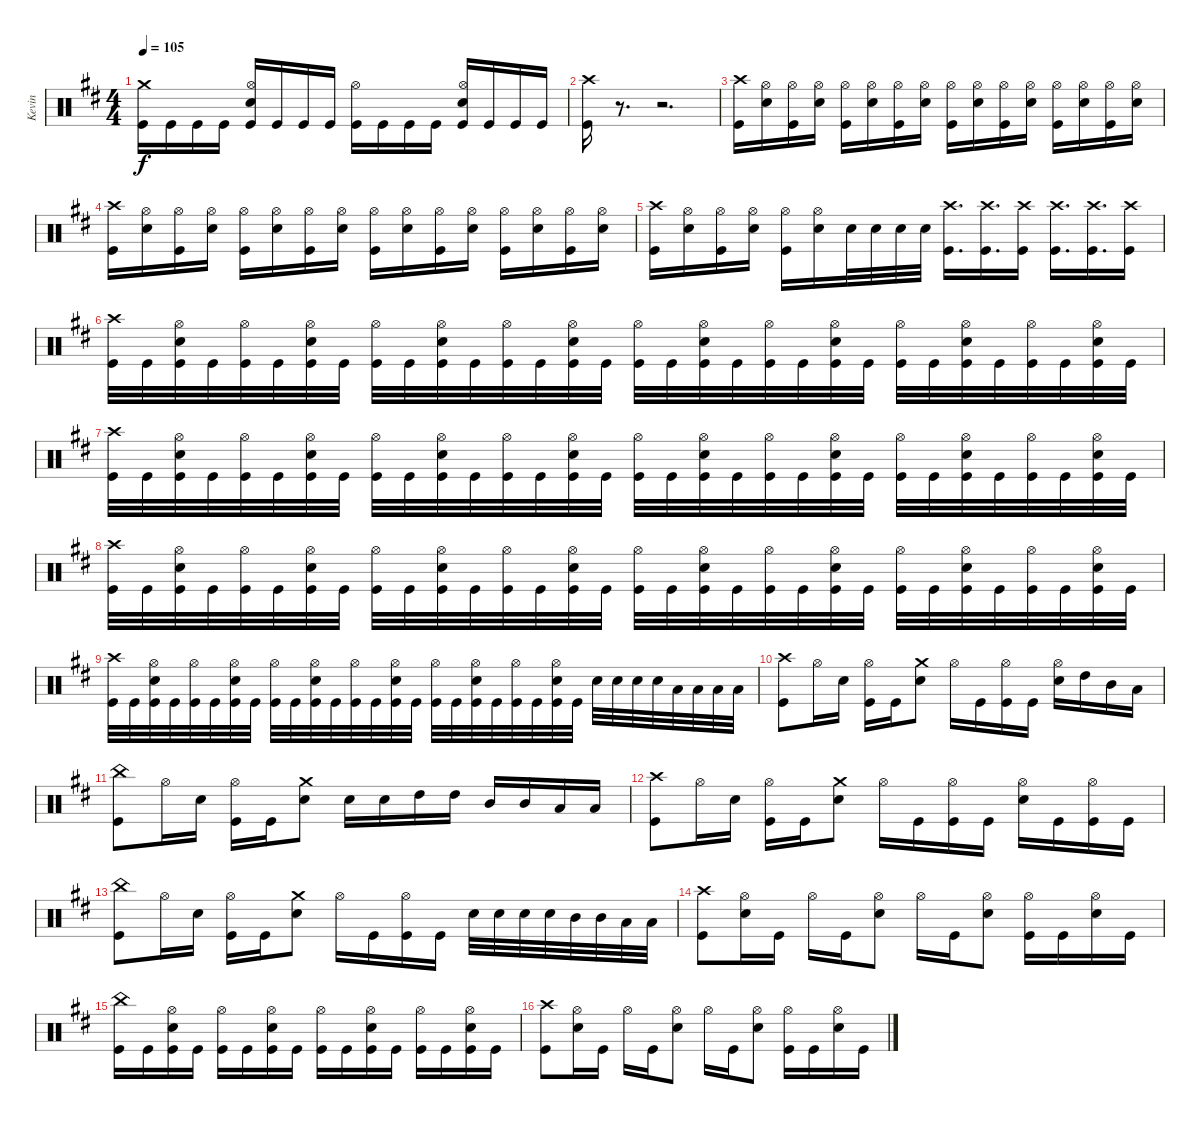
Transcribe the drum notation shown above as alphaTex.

\track ("Kevin" "Kevin") {instrument percussion}
\staff {score}
\articulation defaults
\ts (4 4)
\tempo 105
\clef neutral
\ks d
("Crash medium (hit)" "Kick (hit)").16{dy f} "Kick (hit)".16 "Kick (hit)".16 "Kick (hit)".16 ("Hi-Hat (open)" "Snare (hit) 2" "Kick (hit)").16 "Kick (hit)".16 "Kick (hit)".16 "Kick (hit)".16 ("Hi-Hat (open)" "Kick (hit)").16 "Kick (hit)".16 "Kick (hit)".16 "Kick (hit)".16 ("Hi-Hat (open)" "Snare (hit) 2" "Kick (hit)").16 "Kick (hit)".16 "Kick (hit)".16 "Kick (hit)".16 |
("Crash high (hit)" "Kick (hit)").16 r.8{d} r.2{d} |
("Crash high (hit)" "Kick (hit)").16 ("Hi-Hat (open)" "Snare (hit) 2").16 ("Hi-Hat (open)" "Kick (hit)").16 ("Hi-Hat (open)" "Snare (hit) 2").16 ("Hi-Hat (open)" "Kick (hit)").16 ("Hi-Hat (open)" "Snare (hit) 2").16 ("Hi-Hat (open)" "Kick (hit)").16 ("Hi-Hat (open)" "Snare (hit) 2").16 ("Hi-Hat (open)" "Kick (hit)").16 ("Hi-Hat (open)" "Snare (hit) 2").16 ("Hi-Hat (open)" "Kick (hit)").16 ("Hi-Hat (open)" "Snare (hit) 2").16 ("Hi-Hat (open)" "Kick (hit)").16 ("Hi-Hat (open)" "Snare (hit) 2").16 ("Hi-Hat (open)" "Kick (hit)").16 ("Hi-Hat (open)" "Snare (hit) 2").16 |
("Crash high (hit)" "Kick (hit)").16 ("Hi-Hat (open)" "Snare (hit) 2").16 ("Hi-Hat (open)" "Kick (hit)").16 ("Hi-Hat (open)" "Snare (hit) 2").16 ("Hi-Hat (open)" "Kick (hit)").16 ("Hi-Hat (open)" "Snare (hit) 2").16 ("Hi-Hat (open)" "Kick (hit)").16 ("Hi-Hat (open)" "Snare (hit) 2").16 ("Hi-Hat (open)" "Kick (hit)").16 ("Hi-Hat (open)" "Snare (hit) 2").16 ("Hi-Hat (open)" "Kick (hit)").16 ("Hi-Hat (open)" "Snare (hit) 2").16 ("Hi-Hat (open)" "Kick (hit)").16 ("Hi-Hat (open)" "Snare (hit) 2").16 ("Hi-Hat (open)" "Kick (hit)").16 ("Hi-Hat (open)" "Snare (hit) 2").16 |
("Crash high (hit)" "Kick (hit)").16 ("Hi-Hat (open)" "Snare (hit) 2").16 ("Hi-Hat (open)" "Kick (hit)").16 ("Hi-Hat (open)" "Snare (hit) 2").16 ("Hi-Hat (open)" "Kick (hit)").16 ("Hi-Hat (open)" "Snare (hit) 2").16 "Snare (hit) 2".32 "Snare (hit) 2".32 "Snare (hit) 2".32 "Snare (hit) 2".32 ("Crash high (hit)" "Kick (hit)").16{d} ("Crash high (hit)" "Kick (hit)").16{d} ("Crash high (hit)" "Kick (hit)").16 ("Crash high (hit)" "Kick (hit)").16{d} ("Crash high (hit)" "Kick (hit)").16{d} ("Crash high (hit)" "Kick (hit)").16 |
("Crash high (hit)" "Kick (hit)").32 "Kick (hit)".32 ("Hi-Hat (open)" "Snare (hit) 2" "Kick (hit)").32 "Kick (hit)".32 ("Hi-Hat (open)" "Kick (hit)").32 "Kick (hit)".32 ("Hi-Hat (open)" "Snare (hit) 2" "Kick (hit)").32 "Kick (hit)".32 ("Hi-Hat (open)" "Kick (hit)").32 "Kick (hit)".32 ("Hi-Hat (open)" "Snare (hit) 2" "Kick (hit)").32 "Kick (hit)".32 ("Hi-Hat (open)" "Kick (hit)").32 "Kick (hit)".32 ("Hi-Hat (open)" "Snare (hit) 2" "Kick (hit)").32 "Kick (hit)".32 ("Hi-Hat (open)" "Kick (hit)").32 "Kick (hit)".32 ("Hi-Hat (open)" "Snare (hit) 2" "Kick (hit)").32 "Kick (hit)".32 ("Hi-Hat (open)" "Kick (hit)").32 "Kick (hit)".32 ("Hi-Hat (open)" "Snare (hit) 2" "Kick (hit)").32 "Kick (hit)".32 ("Hi-Hat (open)" "Kick (hit)").32 "Kick (hit)".32 ("Hi-Hat (open)" "Snare (hit) 2" "Kick (hit)").32 "Kick (hit)".32 ("Hi-Hat (open)" "Kick (hit)").32 "Kick (hit)".32 ("Hi-Hat (open)" "Snare (hit) 2" "Kick (hit)").32 "Kick (hit)".32 |
("Crash high (hit)" "Kick (hit)").32 "Kick (hit)".32 ("Hi-Hat (open)" "Snare (hit) 2" "Kick (hit)").32 "Kick (hit)".32 ("Hi-Hat (open)" "Kick (hit)").32 "Kick (hit)".32 ("Hi-Hat (open)" "Snare (hit) 2" "Kick (hit)").32 "Kick (hit)".32 ("Hi-Hat (open)" "Kick (hit)").32 "Kick (hit)".32 ("Hi-Hat (open)" "Snare (hit) 2" "Kick (hit)").32 "Kick (hit)".32 ("Hi-Hat (open)" "Kick (hit)").32 "Kick (hit)".32 ("Hi-Hat (open)" "Snare (hit) 2" "Kick (hit)").32 "Kick (hit)".32 ("Hi-Hat (open)" "Kick (hit)").32 "Kick (hit)".32 ("Hi-Hat (open)" "Snare (hit) 2" "Kick (hit)").32 "Kick (hit)".32 ("Hi-Hat (open)" "Kick (hit)").32 "Kick (hit)".32 ("Hi-Hat (open)" "Snare (hit) 2" "Kick (hit)").32 "Kick (hit)".32 ("Hi-Hat (open)" "Kick (hit)").32 "Kick (hit)".32 ("Hi-Hat (open)" "Snare (hit) 2" "Kick (hit)").32 "Kick (hit)".32 ("Hi-Hat (open)" "Kick (hit)").32 "Kick (hit)".32 ("Hi-Hat (open)" "Snare (hit) 2" "Kick (hit)").32 "Kick (hit)".32 |
("Crash high (hit)" "Kick (hit)").32 "Kick (hit)".32 ("Hi-Hat (open)" "Snare (hit) 2" "Kick (hit)").32 "Kick (hit)".32 ("Hi-Hat (open)" "Kick (hit)").32 "Kick (hit)".32 ("Hi-Hat (open)" "Snare (hit) 2" "Kick (hit)").32 "Kick (hit)".32 ("Hi-Hat (open)" "Kick (hit)").32 "Kick (hit)".32 ("Hi-Hat (open)" "Snare (hit) 2" "Kick (hit)").32 "Kick (hit)".32 ("Hi-Hat (open)" "Kick (hit)").32 "Kick (hit)".32 ("Hi-Hat (open)" "Snare (hit) 2" "Kick (hit)").32 "Kick (hit)".32 ("Hi-Hat (open)" "Kick (hit)").32 "Kick (hit)".32 ("Hi-Hat (open)" "Snare (hit) 2" "Kick (hit)").32 "Kick (hit)".32 ("Hi-Hat (open)" "Kick (hit)").32 "Kick (hit)".32 ("Hi-Hat (open)" "Snare (hit) 2" "Kick (hit)").32 "Kick (hit)".32 ("Hi-Hat (open)" "Kick (hit)").32 "Kick (hit)".32 ("Hi-Hat (open)" "Snare (hit) 2" "Kick (hit)").32 "Kick (hit)".32 ("Hi-Hat (open)" "Kick (hit)").32 "Kick (hit)".32 ("Hi-Hat (open)" "Snare (hit) 2" "Kick (hit)").32 "Kick (hit)".32 |
("Crash high (hit)" "Kick (hit)").32 "Kick (hit)".32 ("Hi-Hat (open)" "Snare (hit) 2" "Kick (hit)").32 "Kick (hit)".32 ("Hi-Hat (open)" "Kick (hit)").32 "Kick (hit)".32 ("Hi-Hat (open)" "Snare (hit) 2" "Kick (hit)").32 "Kick (hit)".32 ("Hi-Hat (open)" "Kick (hit)").32 "Kick (hit)".32 ("Hi-Hat (open)" "Snare (hit) 2" "Kick (hit)").32 "Kick (hit)".32 ("Hi-Hat (open)" "Kick (hit)").32 "Kick (hit)".32 ("Hi-Hat (open)" "Snare (hit) 2" "Kick (hit)").32 "Kick (hit)".32 ("Hi-Hat (open)" "Kick (hit)").32 "Kick (hit)".32 ("Hi-Hat (open)" "Snare (hit) 2" "Kick (hit)").32 "Kick (hit)".32 ("Hi-Hat (open)" "Kick (hit)").32 "Kick (hit)".32 ("Hi-Hat (open)" "Snare (hit) 2" "Kick (hit)").32 "Kick (hit)".32 "Snare (hit) 2".32 "Snare (hit) 2".32 "Snare (hit) 2".32 "Snare (hit) 2".32 "Low Tom (hit)".32 "Low Tom (hit)".32 "Low Tom (hit)".32 "Low Tom (hit)".32 |
("Crash high (hit)" "Kick (hit)").8 "Hi-Hat (open)".16 "Snare (hit) 2".16 ("Hi-Hat (open)" "Kick (hit)").16 "Kick (hit)".16 ("Crash medium (hit)" "Snare (hit) 2").8 "Hi-Hat (open)".16 "Kick (hit)".16 ("Hi-Hat (open)" "Kick (hit)").16 "Kick (hit)".16 ("Hi-Hat (open)" "Snare (hit) 2").16 "High Tom (hit)".16 "Mid Tom (hit)".16 "Low Tom (hit)".16 |
("China (hit)" "Kick (hit)").8 "Hi-Hat (open)".16 "Snare (hit) 2".16 ("Hi-Hat (open)" "Kick (hit)").16 "Kick (hit)".16 ("Crash medium (hit)" "Snare (hit) 2").8 "Snare (hit) 2".16 "Snare (hit) 2".16 "High Tom (hit)".16 "High Tom (hit)".16 "Mid Tom (hit)".16 "Mid Tom (hit)".16 "Low Tom (hit)".16 "Low Tom (hit)".16 |
("Crash high (hit)" "Kick (hit)").8 "Hi-Hat (open)".16 "Snare (hit) 2".16 ("Hi-Hat (open)" "Kick (hit)").16 "Kick (hit)".16 ("Crash medium (hit)" "Snare (hit) 2").8 "Hi-Hat (open)".16 "Kick (hit)".16 ("Hi-Hat (open)" "Kick (hit)").16 "Kick (hit)".16 ("Hi-Hat (open)" "Snare (hit) 2").16 "Kick (hit)".16 ("Hi-Hat (open)" "Kick (hit)").16 "Kick (hit)".16 |
("China (hit)" "Kick (hit)").8 "Hi-Hat (open)".16 "Snare (hit) 2".16 ("Hi-Hat (open)" "Kick (hit)").16 "Kick (hit)".16 ("Crash medium (hit)" "Snare (hit) 2").8 "Hi-Hat (open)".16 "Kick (hit)".16 ("Hi-Hat (open)" "Kick (hit)").16 "Kick (hit)".16 "Snare (hit) 2".32 "Snare (hit) 2".32 "Snare (hit) 2".32 "Snare (hit) 2".32 "Mid Tom (hit)".32 "Mid Tom (hit)".32 "Low Tom (hit)".32 "Low Tom (hit)".32 |
("Crash high (hit)" "Kick (hit)").8 ("Hi-Hat (open)" "Snare (hit) 2").16 "Kick (hit)".16 "Hi-Hat (open)".16 "Kick (hit)".16 ("Hi-Hat (open)" "Snare (hit) 2").8 "Hi-Hat (open)".16 "Kick (hit)".16 ("Hi-Hat (open)" "Snare (hit) 2").8 ("Hi-Hat (open)" "Kick (hit)").16 "Kick (hit)".16 ("Hi-Hat (open)" "Snare (hit) 2").16 "Kick (hit)".16 |
("China (hit)" "Kick (hit)").16 "Kick (hit)".16 ("Hi-Hat (open)" "Snare (hit) 2" "Kick (hit)").16 "Kick (hit)".16 ("Hi-Hat (open)" "Kick (hit)").16 "Kick (hit)".16 ("Hi-Hat (open)" "Snare (hit) 2" "Kick (hit)").16 "Kick (hit)".16 ("Hi-Hat (open)" "Kick (hit)").16 "Kick (hit)".16 ("Hi-Hat (open)" "Snare (hit) 2" "Kick (hit)").16 "Kick (hit)".16 ("Hi-Hat (open)" "Kick (hit)").16 "Kick (hit)".16 ("Hi-Hat (open)" "Snare (hit) 2" "Kick (hit)").16 "Kick (hit)".16 |
("Crash high (hit)" "Kick (hit)").8 ("Hi-Hat (open)" "Snare (hit) 2").16 "Kick (hit)".16 "Hi-Hat (open)".16 "Kick (hit)".16 ("Hi-Hat (open)" "Snare (hit) 2").8 "Hi-Hat (open)".16 "Kick (hit)".16 ("Hi-Hat (open)" "Snare (hit) 2").8 ("Hi-Hat (open)" "Kick (hit)").16 "Kick (hit)".16 ("Hi-Hat (open)" "Snare (hit) 2").16 "Kick (hit)".16
